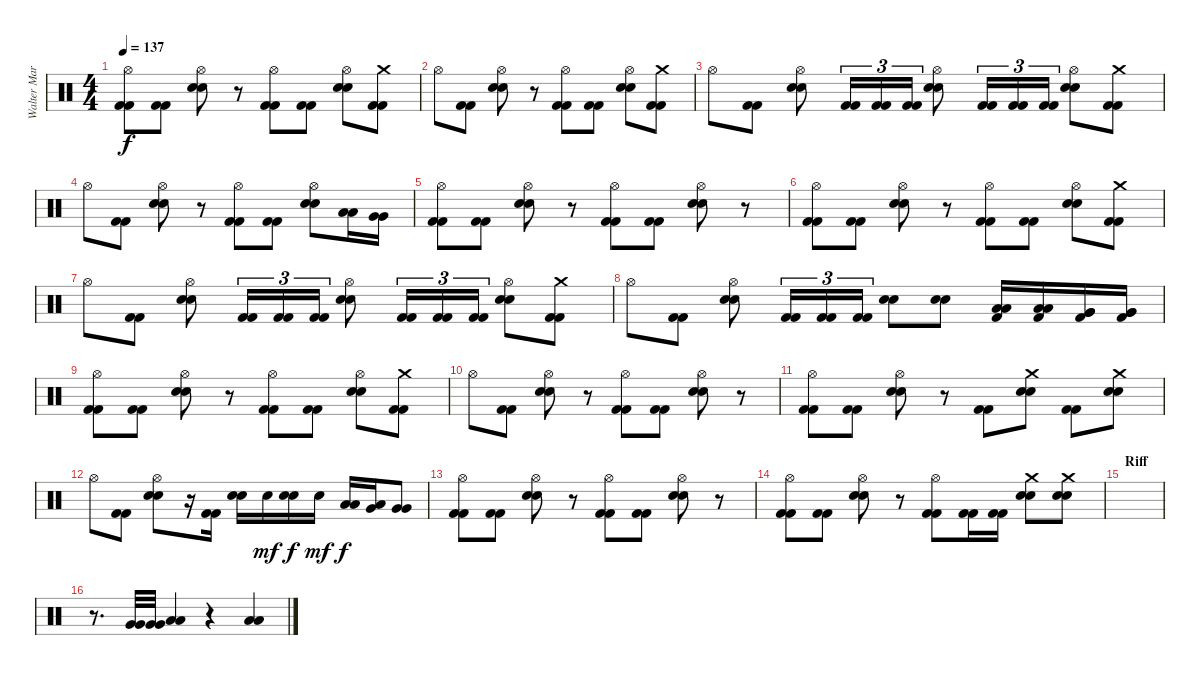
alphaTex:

\track ("Walter Martinez (bateria)" "Walter Mar") {instrument percussion}
\staff {score}
\articulation defaults
\ts (4 4)
\tempo 137
\clef neutral
\ks c
("Hi-Hat (open)" "Kick (hit) 2" "Kick (hit) 2").8{dy f} ("Kick (hit) 2" "Kick (hit) 2").8 ("Hi-Hat (open)" "Snare (hit) 2" "Snare (hit) 2").8 r.8 ("Hi-Hat (open)" "Kick (hit) 2" "Kick (hit) 2").8 ("Kick (hit) 2" "Kick (hit) 2").8 ("Hi-Hat (open)" "Snare (hit) 2" "Snare (hit) 2").8 ("Crash medium (hit)" "Kick (hit) 2" "Kick (hit) 2").8 |
"Hi-Hat (open)".8 ("Kick (hit) 2" "Kick (hit) 2").8 ("Hi-Hat (open)" "Snare (hit) 2" "Snare (hit) 2").8 r.8 ("Hi-Hat (open)" "Kick (hit) 2" "Kick (hit) 2").8 ("Kick (hit) 2" "Kick (hit) 2").8 ("Hi-Hat (open)" "Snare (hit) 2" "Snare (hit) 2").8 ("Crash medium (hit)" "Kick (hit) 2" "Kick (hit) 2").8 |
"Hi-Hat (open)".8 ("Kick (hit) 2" "Kick (hit) 2").8 ("Hi-Hat (open)" "Snare (hit) 2" "Snare (hit) 2").8 ("Kick (hit) 2" "Kick (hit) 2").16{tu (3 2)} ("Kick (hit) 2" "Kick (hit) 2").16{tu (3 2)} ("Kick (hit) 2" "Kick (hit) 2").16{tu (3 2)} ("Hi-Hat (open)" "Snare (hit) 2" "Snare (hit) 2").8 ("Kick (hit) 2" "Kick (hit) 2").16{tu (3 2)} ("Kick (hit) 2" "Kick (hit) 2").16{tu (3 2)} ("Kick (hit) 2" "Kick (hit) 2").16{tu (3 2)} ("Hi-Hat (open)" "Snare (hit) 2" "Snare (hit) 2").8 ("Crash medium (hit)" "Kick (hit) 2" "Kick (hit) 2").8 |
"Hi-Hat (open)".8 ("Kick (hit) 2" "Kick (hit) 2").8 ("Hi-Hat (open)" "Snare (hit) 2" "Snare (hit) 2").8 r.8 ("Hi-Hat (open)" "Kick (hit) 2" "Kick (hit) 2").8 ("Kick (hit) 2" "Kick (hit) 2").8 ("Hi-Hat (open)" "Snare (hit) 2" "Snare (hit) 2").8 ("Low Tom (hit)" "Low Tom (hit)").16 ("Very Low Tom (hit)" "Very Low Tom (hit)").16 |
("Hi-Hat (open)" "Kick (hit) 2" "Kick (hit) 2").8 ("Kick (hit) 2" "Kick (hit) 2").8 ("Hi-Hat (open)" "Snare (hit) 2" "Snare (hit) 2").8 r.8 ("Hi-Hat (open)" "Kick (hit) 2" "Kick (hit) 2").8 ("Kick (hit) 2" "Kick (hit) 2").8 ("Hi-Hat (open)" "Snare (hit) 2" "Snare (hit) 2").8 r.8 |
("Hi-Hat (open)" "Kick (hit) 2" "Kick (hit) 2").8 ("Kick (hit) 2" "Kick (hit) 2").8 ("Hi-Hat (open)" "Snare (hit) 2" "Snare (hit) 2").8 r.8 ("Hi-Hat (open)" "Kick (hit) 2" "Kick (hit) 2").8 ("Kick (hit) 2" "Kick (hit) 2").8 ("Hi-Hat (open)" "Snare (hit) 2" "Snare (hit) 2").8 ("Crash medium (hit)" "Kick (hit) 2" "Kick (hit) 2").8 |
"Hi-Hat (open)".8 ("Kick (hit) 2" "Kick (hit) 2").8 ("Hi-Hat (open)" "Snare (hit) 2" "Snare (hit) 2").8 ("Kick (hit) 2" "Kick (hit) 2").16{tu (3 2)} ("Kick (hit) 2" "Kick (hit) 2").16{tu (3 2)} ("Kick (hit) 2" "Kick (hit) 2").16{tu (3 2)} ("Hi-Hat (open)" "Snare (hit) 2" "Snare (hit) 2").8 ("Kick (hit) 2" "Kick (hit) 2").16{tu (3 2)} ("Kick (hit) 2" "Kick (hit) 2").16{tu (3 2)} ("Kick (hit) 2" "Kick (hit) 2").16{tu (3 2)} ("Hi-Hat (open)" "Snare (hit) 2" "Snare (hit) 2").8 ("Crash medium (hit)" "Kick (hit) 2" "Kick (hit) 2").8 |
"Hi-Hat (open)".8 ("Kick (hit) 2" "Kick (hit) 2").8 ("Hi-Hat (open)" "Snare (hit) 2" "Snare (hit) 2").8 ("Kick (hit) 2" "Kick (hit) 2").16{tu (3 2)} ("Kick (hit) 2" "Kick (hit) 2").16{tu (3 2)} ("Kick (hit) 2" "Kick (hit) 2").16{tu (3 2)} ("Snare (hit) 2" "Snare (hit) 2").8 ("Snare (hit) 2" "Snare (hit) 2").8 ("Low Tom (hit)" "Low Tom (hit)" "Kick (hit) 2").16 ("Low Tom (hit)" "Low Tom (hit)" "Kick (hit) 2").16 ("Very Low Tom (hit)" "Very Low Tom (hit)" "Kick (hit) 2").16 ("Very Low Tom (hit)" "Very Low Tom (hit)" "Kick (hit) 2").16 |
("Hi-Hat (open)" "Kick (hit) 2" "Kick (hit) 2").8 ("Kick (hit) 2" "Kick (hit) 2").8 ("Hi-Hat (open)" "Snare (hit) 2" "Snare (hit) 2").8 r.8 ("Hi-Hat (open)" "Kick (hit) 2" "Kick (hit) 2").8 ("Kick (hit) 2" "Kick (hit) 2").8 ("Hi-Hat (open)" "Snare (hit) 2" "Snare (hit) 2").8 ("Crash medium (hit)" "Kick (hit) 2" "Kick (hit) 2").8 |
"Hi-Hat (open)".8 ("Kick (hit) 2" "Kick (hit) 2").8 ("Hi-Hat (open)" "Snare (hit) 2" "Snare (hit) 2").8 r.8 ("Hi-Hat (open)" "Kick (hit) 2" "Kick (hit) 2").8 ("Kick (hit) 2" "Kick (hit) 2").8 ("Hi-Hat (open)" "Snare (hit) 2" "Snare (hit) 2").8 r.8 |
("Hi-Hat (open)" "Kick (hit) 2" "Kick (hit) 2").8 ("Kick (hit) 2" "Kick (hit) 2").8 ("Hi-Hat (open)" "Snare (hit) 2" "Snare (hit) 2").8 r.8 ("Kick (hit) 2" "Kick (hit) 2").8 ("Crash medium (hit)" "Snare (hit) 2" "Snare (hit) 2").8 ("Kick (hit) 2" "Kick (hit) 2").8 ("Crash medium (hit)" "Snare (hit) 2" "Snare (hit) 2").8 |
"Hi-Hat (open)".8 ("Kick (hit) 2" "Kick (hit) 2").8 ("Hi-Hat (open)" "Snare (hit) 2" "Snare (hit) 2").8 r.16 ("Kick (hit) 2" "Kick (hit) 2").16 ("Snare (hit) 2" "Snare (hit) 2").16 "Snare (hit) 2".16{dy mf} ("Snare (hit) 2" "Snare (hit) 2").16{dy f} "Snare (hit) 2".16{dy mf} ("Low Tom (hit)" "Low Tom (hit)").16{dy f} ("Very Low Tom (hit)" "Low Tom (hit)").16 ("Very Low Tom (hit)" "Very Low Tom (hit)").8 |
("Hi-Hat (open)" "Kick (hit) 2" "Kick (hit) 2").8 ("Kick (hit) 2" "Kick (hit) 2").8 ("Hi-Hat (open)" "Snare (hit) 2" "Snare (hit) 2").8 r.8 ("Hi-Hat (open)" "Kick (hit) 2" "Kick (hit) 2").8 ("Kick (hit) 2" "Kick (hit) 2").8 ("Hi-Hat (open)" "Snare (hit) 2" "Snare (hit) 2").8 r.8 |
("Hi-Hat (open)" "Kick (hit) 2" "Kick (hit) 2").8 ("Kick (hit) 2" "Kick (hit) 2").8 ("Hi-Hat (open)" "Snare (hit) 2" "Snare (hit) 2").8 r.8 ("Hi-Hat (open)" "Kick (hit) 2" "Kick (hit) 2").8 ("Kick (hit) 2" "Kick (hit) 2").16 ("Kick (hit) 2" "Kick (hit) 2").16 ("Crash medium (hit)" "Snare (hit) 2" "Snare (hit) 2").8 ("Crash medium (hit)" "Snare (hit) 2" "Snare (hit) 2").8 |
\section ("" "Riff")
|
r.8{d} ("Very Low Tom (hit)" "Very Low Tom (hit)").32 ("Very Low Tom (hit)" "Very Low Tom (hit)").32 ("Low Floor Tom (hit)" "Low Floor Tom (hit)").4 r.4 ("Low Tom (hit)" "Low Tom (hit)").4
